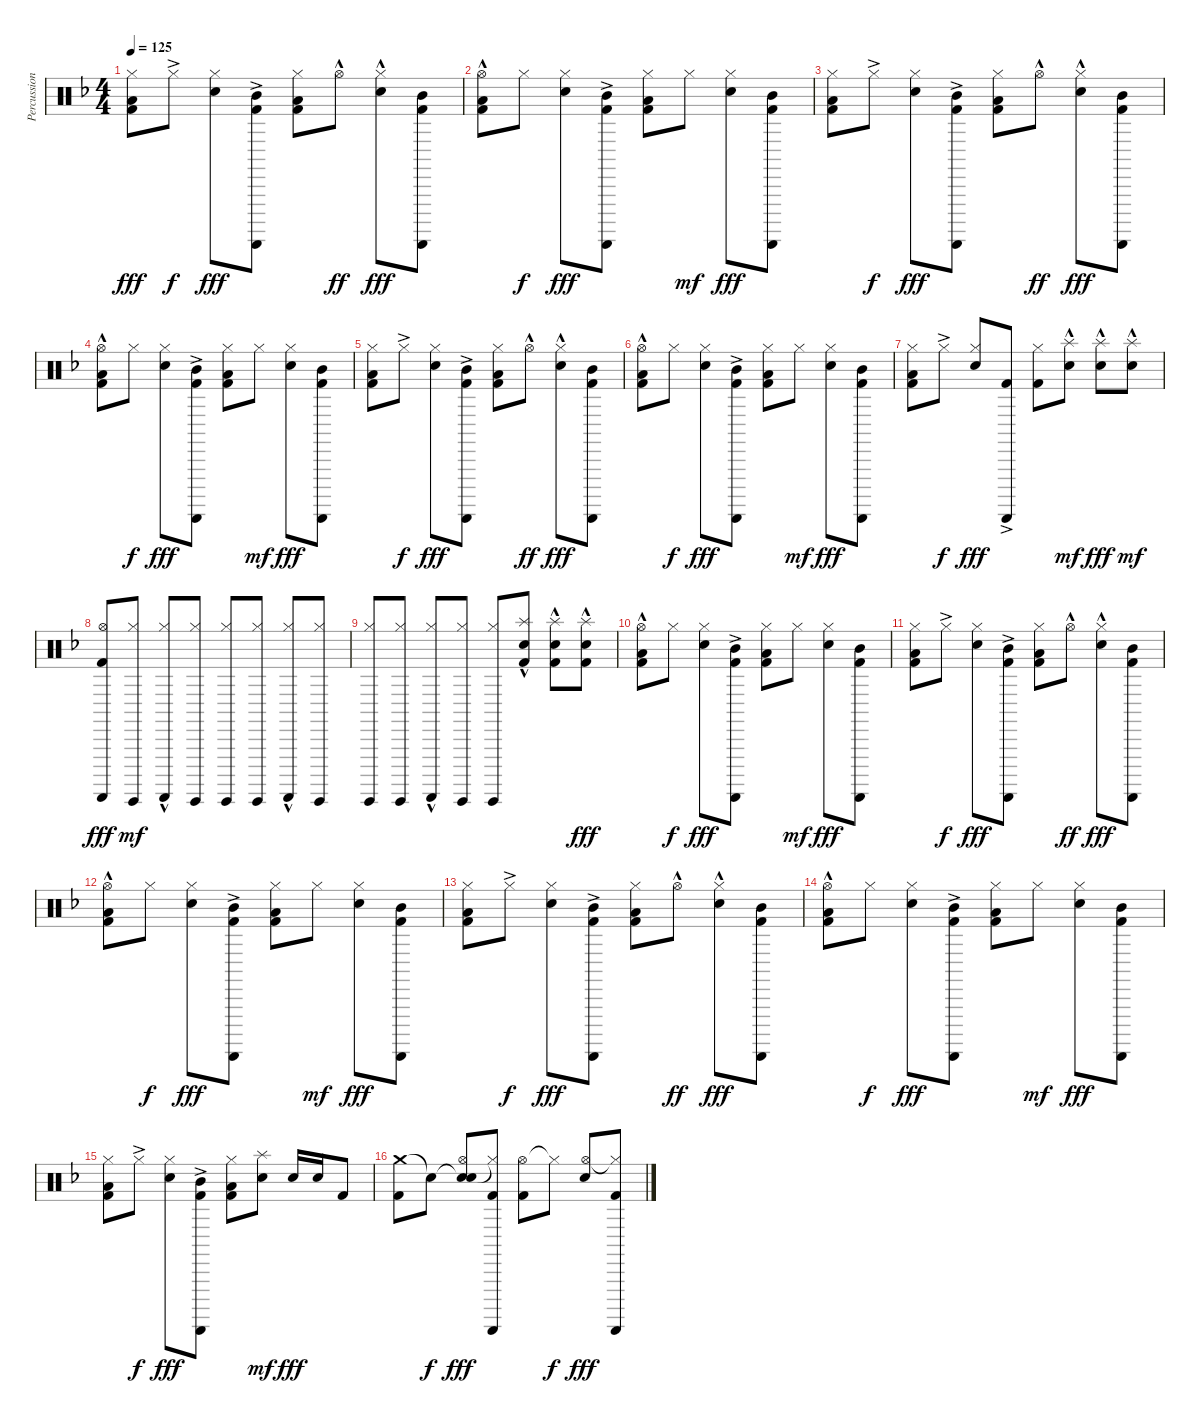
\track ("Percussion" "Percussion") {instrument percussion}
\staff {score}
\articulation defaults
\ts (4 4)
\tempo 125
\clef neutral
\ks dminor
("Hi-Hat (closed)" "Low Floor Tom (hit)" "Kick (hit) 2").8{dy fff} "Hi-Hat (closed)"{ac}.8{dy f} ("Hi-Hat (closed)" "Electric Snare (hit)").8{dy fff} ("Guiro (scrap-return)"{ac} "Mid Tom (hit)" "Kick (hit) 2").8 ("Hi-Hat (closed)" "Low Floor Tom (hit)" "Kick (hit) 2").8 "Hi-Hat (open)"{hac}.8{dy ff} ("Hi-Hat (closed)"{hac} "Electric Snare (hit)").8{dy fff} ("Guiro (scrap-return)" "Mid Tom (hit)" "Kick (hit) 2").8 |
("Hi-Hat (open)"{hac} "Low Floor Tom (hit)" "Kick (hit) 2").8 "Hi-Hat (closed)".8{dy f} ("Hi-Hat (closed)" "Electric Snare (hit)").8{dy fff} ("Guiro (scrap-return)"{ac} "Mid Tom (hit)" "Kick (hit) 2").8 ("Hi-Hat (closed)" "Low Floor Tom (hit)" "Kick (hit) 2").8 "Hi-Hat (closed)".8{dy mf} ("Hi-Hat (closed)" "Electric Snare (hit)").8{dy fff} ("Guiro (scrap-return)" "Mid Tom (hit)" "Kick (hit) 2").8 |
("Hi-Hat (closed)" "Low Floor Tom (hit)" "Kick (hit) 2").8 "Hi-Hat (closed)"{ac}.8{dy f} ("Hi-Hat (closed)" "Electric Snare (hit)").8{dy fff} ("Guiro (scrap-return)"{ac} "Mid Tom (hit)" "Kick (hit) 2").8 ("Hi-Hat (closed)" "Low Floor Tom (hit)" "Kick (hit) 2").8 "Hi-Hat (open)"{hac}.8{dy ff} ("Hi-Hat (closed)"{hac} "Electric Snare (hit)").8{dy fff} ("Guiro (scrap-return)" "Mid Tom (hit)" "Kick (hit) 2").8 |
("Hi-Hat (open)"{hac} "Low Floor Tom (hit)" "Kick (hit) 2").8 "Hi-Hat (closed)".8{dy f} ("Hi-Hat (closed)" "Electric Snare (hit)").8{dy fff} ("Guiro (scrap-return)"{ac} "Mid Tom (hit)" "Kick (hit) 2").8 ("Hi-Hat (closed)" "Low Floor Tom (hit)" "Kick (hit) 2").8 "Hi-Hat (closed)".8{dy mf} ("Hi-Hat (closed)" "Electric Snare (hit)").8{dy fff} ("Guiro (scrap-return)" "Mid Tom (hit)" "Kick (hit) 2").8 |
("Hi-Hat (closed)" "Low Floor Tom (hit)" "Kick (hit) 2").8 "Hi-Hat (closed)"{ac}.8{dy f} ("Hi-Hat (closed)" "Electric Snare (hit)").8{dy fff} ("Guiro (scrap-return)"{ac} "Mid Tom (hit)" "Kick (hit) 2").8 ("Hi-Hat (closed)" "Low Floor Tom (hit)" "Kick (hit) 2").8 "Hi-Hat (open)"{hac}.8{dy ff} ("Hi-Hat (closed)"{hac} "Electric Snare (hit)").8{dy fff} ("Guiro (scrap-return)" "Mid Tom (hit)" "Kick (hit) 2").8 |
("Hi-Hat (open)"{hac} "Low Floor Tom (hit)" "Kick (hit) 2").8 "Hi-Hat (closed)".8{dy f} ("Hi-Hat (closed)" "Electric Snare (hit)").8{dy fff} ("Guiro (scrap-return)"{ac} "Mid Tom (hit)" "Kick (hit) 2").8 ("Hi-Hat (closed)" "Low Floor Tom (hit)" "Kick (hit) 2").8 "Hi-Hat (closed)".8{dy mf} ("Hi-Hat (closed)" "Electric Snare (hit)").8{dy fff} ("Guiro (scrap-return)" "Mid Tom (hit)" "Kick (hit) 2").8 |
("Hi-Hat (closed)" "Low Floor Tom (hit)" "Kick (hit) 2").8 "Hi-Hat (closed)"{ac}.8{dy f} ("Hi-Hat (closed)" "Electric Snare (hit)").8{dy fff} ("Guiro (scrap-return)"{ac} "Kick (hit) 2").8 ("Hi-Hat (closed)" "Kick (hit) 2").8 ("Splash (hit)"{hac} "Electric Snare (hit)").8{dy mf} ("Splash (hit)"{hac} "Electric Snare (hit)").8{dy fff} ("Splash (hit)"{hac} "Electric Snare (hit)").8{dy mf} |
("Hi-Hat (open)" "Guiro (scrap-return)" "Kick (hit) 2").8{dy fff} ("Hi-Hat (closed)" "Guiro (hit)").8{dy mf} ("Hi-Hat (closed)" "Guiro (scrap-return)"{hac}).8 ("Hi-Hat (closed)" "Guiro (hit)").8 ("Hi-Hat (closed)" "Guiro (hit)").8 ("Hi-Hat (closed)" "Guiro (hit)").8 ("Hi-Hat (closed)" "Guiro (scrap-return)"{hac}).8 ("Hi-Hat (closed)" "Guiro (hit)").8 |
("Hi-Hat (closed)" "Guiro (hit)").8 ("Hi-Hat (closed)" "Guiro (hit)").8 ("Hi-Hat (closed)" "Guiro (scrap-return)"{hac}).8 ("Hi-Hat (closed)" "Guiro (hit)").8 ("Hi-Hat (closed)" "Guiro (hit)").8 ("Splash (hit)"{hac} "Electric Snare (hit)" "Kick (hit) 2").8 ("Splash (hit)"{hac} "Electric Snare (hit)" "Kick (hit) 2").8 ("Splash (hit)"{hac} "Electric Snare (hit)" "Kick (hit) 2").8{dy fff} |
("Hi-Hat (open)"{hac} "Low Floor Tom (hit)" "Kick (hit) 2").8 "Hi-Hat (closed)".8{dy f} ("Hi-Hat (closed)" "Electric Snare (hit)").8{dy fff} ("Guiro (scrap-return)"{ac} "Mid Tom (hit)" "Kick (hit) 2").8 ("Hi-Hat (closed)" "Low Floor Tom (hit)" "Kick (hit) 2").8 "Hi-Hat (closed)".8{dy mf} ("Hi-Hat (closed)" "Electric Snare (hit)").8{dy fff} ("Guiro (scrap-return)" "Mid Tom (hit)" "Kick (hit) 2").8 |
("Hi-Hat (closed)" "Low Floor Tom (hit)" "Kick (hit) 2").8 "Hi-Hat (closed)"{ac}.8{dy f} ("Hi-Hat (closed)" "Electric Snare (hit)").8{dy fff} ("Guiro (scrap-return)"{ac} "Mid Tom (hit)" "Kick (hit) 2").8 ("Hi-Hat (closed)" "Low Floor Tom (hit)" "Kick (hit) 2").8 "Hi-Hat (open)"{hac}.8{dy ff} ("Hi-Hat (closed)"{hac} "Electric Snare (hit)").8{dy fff} ("Guiro (scrap-return)" "Mid Tom (hit)" "Kick (hit) 2").8 |
("Hi-Hat (open)"{hac} "Low Floor Tom (hit)" "Kick (hit) 2").8 "Hi-Hat (closed)".8{dy f} ("Hi-Hat (closed)" "Electric Snare (hit)").8{dy fff} ("Guiro (scrap-return)"{ac} "Mid Tom (hit)" "Kick (hit) 2").8 ("Hi-Hat (closed)" "Low Floor Tom (hit)" "Kick (hit) 2").8 "Hi-Hat (closed)".8{dy mf} ("Hi-Hat (closed)" "Electric Snare (hit)").8{dy fff} ("Guiro (scrap-return)" "Mid Tom (hit)" "Kick (hit) 2").8 |
("Hi-Hat (closed)" "Low Floor Tom (hit)" "Kick (hit) 2").8 "Hi-Hat (closed)"{ac}.8{dy f} ("Hi-Hat (closed)" "Electric Snare (hit)").8{dy fff} ("Guiro (scrap-return)"{ac} "Mid Tom (hit)" "Kick (hit) 2").8 ("Hi-Hat (closed)" "Low Floor Tom (hit)" "Kick (hit) 2").8 "Hi-Hat (open)"{hac}.8{dy ff} ("Hi-Hat (closed)"{hac} "Electric Snare (hit)").8{dy fff} ("Guiro (scrap-return)" "Mid Tom (hit)" "Kick (hit) 2").8 |
("Hi-Hat (open)"{hac} "Low Floor Tom (hit)" "Kick (hit) 2").8 "Hi-Hat (closed)".8{dy f} ("Hi-Hat (closed)" "Electric Snare (hit)").8{dy fff} ("Guiro (scrap-return)"{ac} "Mid Tom (hit)" "Kick (hit) 2").8 ("Hi-Hat (closed)" "Low Floor Tom (hit)" "Kick (hit) 2").8 "Hi-Hat (closed)".8{dy mf} ("Hi-Hat (closed)" "Electric Snare (hit)").8{dy fff} ("Guiro (scrap-return)" "Mid Tom (hit)" "Kick (hit) 2").8 |
("Hi-Hat (closed)" "Low Floor Tom (hit)" "Kick (hit) 2").8 "Hi-Hat (closed)"{ac}.8{dy f} ("Hi-Hat (closed)" "Electric Snare (hit)").8{dy fff} ("Guiro (scrap-return)"{ac} "Mid Tom (hit)" "Kick (hit) 2").8 ("Hi-Hat (closed)" "Low Floor Tom (hit)" "Kick (hit) 2").8 ("Splash (hit)" "Electric Snare (hit)").8{dy mf} "Electric Snare (hit)".16{dy fff} "Electric Snare (hit)".16 "Kick (hit) 2".8 |
("Crash medium (hit)" "Kick (hit) 2").8 "Snare (hit)"{t}.8{dy f} ("Snare (hit)"{t} "Hi-Hat (open)" "Electric Snare (hit)").8{dy fff} ("Hi-Hat (closed)"{t} "Guiro (scrap-return)" "Kick (hit) 2").8 ("Hi-Hat (open)" "Kick (hit) 2").8 "Hi-Hat (closed)"{t}.8{dy f} ("Hi-Hat (open)" "Electric Snare (hit)").8{dy fff} ("Hi-Hat (closed)"{t} "Guiro (scrap-return)" "Kick (hit) 2").8
